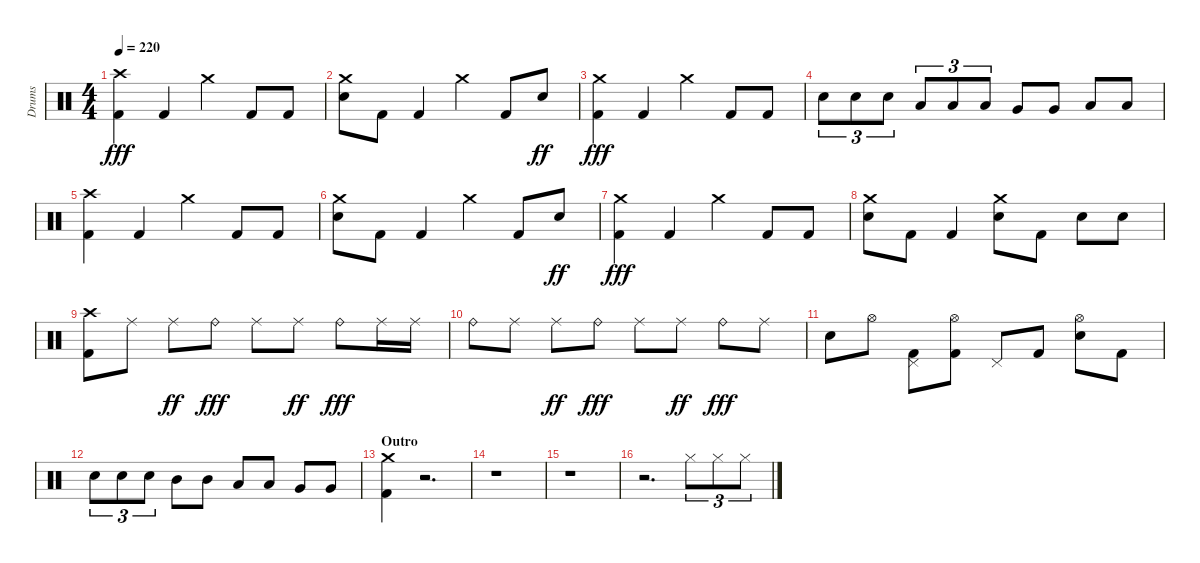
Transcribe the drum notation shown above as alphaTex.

\track ("Drums" "Drums") {instrument percussion}
\staff {score}
\articulation defaults
\ts (4 4)
\tempo 220
\clef neutral
\ks aminor
("Kick (hit) 2" "Crash high (hit)").4{dy fff} "Kick (hit) 2".4 "Crash medium (hit)".4 "Kick (hit) 2".8 "Kick (hit) 2".8 |
("Snare (hit) 2" "Crash medium (hit)").8 "Kick (hit) 2".8 "Kick (hit) 2".4 "Crash medium (hit)".4 "Kick (hit) 2".8 "Snare (hit) 2".8{dy ff} |
("Kick (hit) 2" "Crash medium (hit)").4{dy fff} "Kick (hit) 2".4 "Crash medium (hit)".4 "Kick (hit) 2".8 "Kick (hit) 2".8 |
"Snare (hit) 2".8{tu (3 2)} "Snare (hit) 2".8{tu (3 2)} "Snare (hit) 2".8{tu (3 2)} "Low Tom (hit)".8{tu (3 2)} "Low Tom (hit)".8{tu (3 2)} "Low Tom (hit)".8{tu (3 2)} "Very Low Tom (hit)".8 "Very Low Tom (hit)".8 "Low Floor Tom (hit)".8 "Low Floor Tom (hit)".8 |
("Kick (hit) 2" "Crash high (hit)").4 "Kick (hit) 2".4 "Crash medium (hit)".4 "Kick (hit) 2".8 "Kick (hit) 2".8 |
("Snare (hit) 2" "Crash medium (hit)").8 "Kick (hit) 2".8 "Kick (hit) 2".4 "Crash medium (hit)".4 "Kick (hit) 2".8 "Snare (hit) 2".8{dy ff} |
("Kick (hit) 2" "Crash medium (hit)").4{dy fff} "Kick (hit) 2".4 "Crash medium (hit)".4 "Kick (hit) 2".8 "Kick (hit) 2".8 |
("Snare (hit) 2" "Crash medium (hit)").8 "Kick (hit) 2".8 "Kick (hit) 2".4 ("Snare (hit) 2" "Crash medium (hit)").8 "Kick (hit) 2".8 "Snare (hit) 2".8 "Snare (hit) 2".8 |
("Kick (hit) 2" "Crash high (hit)").8 "Ride (middle)".8 "Ride (middle)".8{dy ff} "Ride (bell)".8{dy fff} "Ride (middle)".8 "Ride (middle)".8{dy ff} "Ride (bell)".8{dy fff} "Ride (middle)".16 "Ride (middle)".16 |
"Ride (bell)".8 "Ride (middle)".8 "Ride (middle)".8{dy ff} "Ride (bell)".8{dy fff} "Ride (middle)".8 "Ride (middle)".8{dy ff} "Ride (bell)".8{dy fff} "Ride (middle)".8 |
"Snare (hit) 2".8 "Hi-Hat (open)".8 ("Kick (hit) 2" "Pedal Hi-Hat (hit)").8 ("Kick (hit) 2" "Hi-Hat (open)").8 "Pedal Hi-Hat (hit)".8 "Kick (hit) 2".8 ("Snare (hit) 2" "Hi-Hat (open)").8 "Kick (hit) 2".8 |
"Snare (hit) 2".8{tu (3 2)} "Snare (hit) 2".8{tu (3 2)} "Snare (hit) 2".8{tu (3 2)} "Mid Tom (hit)".8 "Mid Tom (hit)".8 "Low Tom (hit)".8 "Low Tom (hit)".8 "Very Low Tom (hit)".8 "Very Low Tom (hit)".8 |
\section ("" "Outro")
("Kick (hit) 2" "Crash medium (hit)").4 r.2{d} |
r.1 |
r.1 |
r.2{d} "Hi-Hat (closed)".8{tu (3 2)} "Hi-Hat (closed)".8{tu (3 2)} "Hi-Hat (closed)".8{tu (3 2)}
